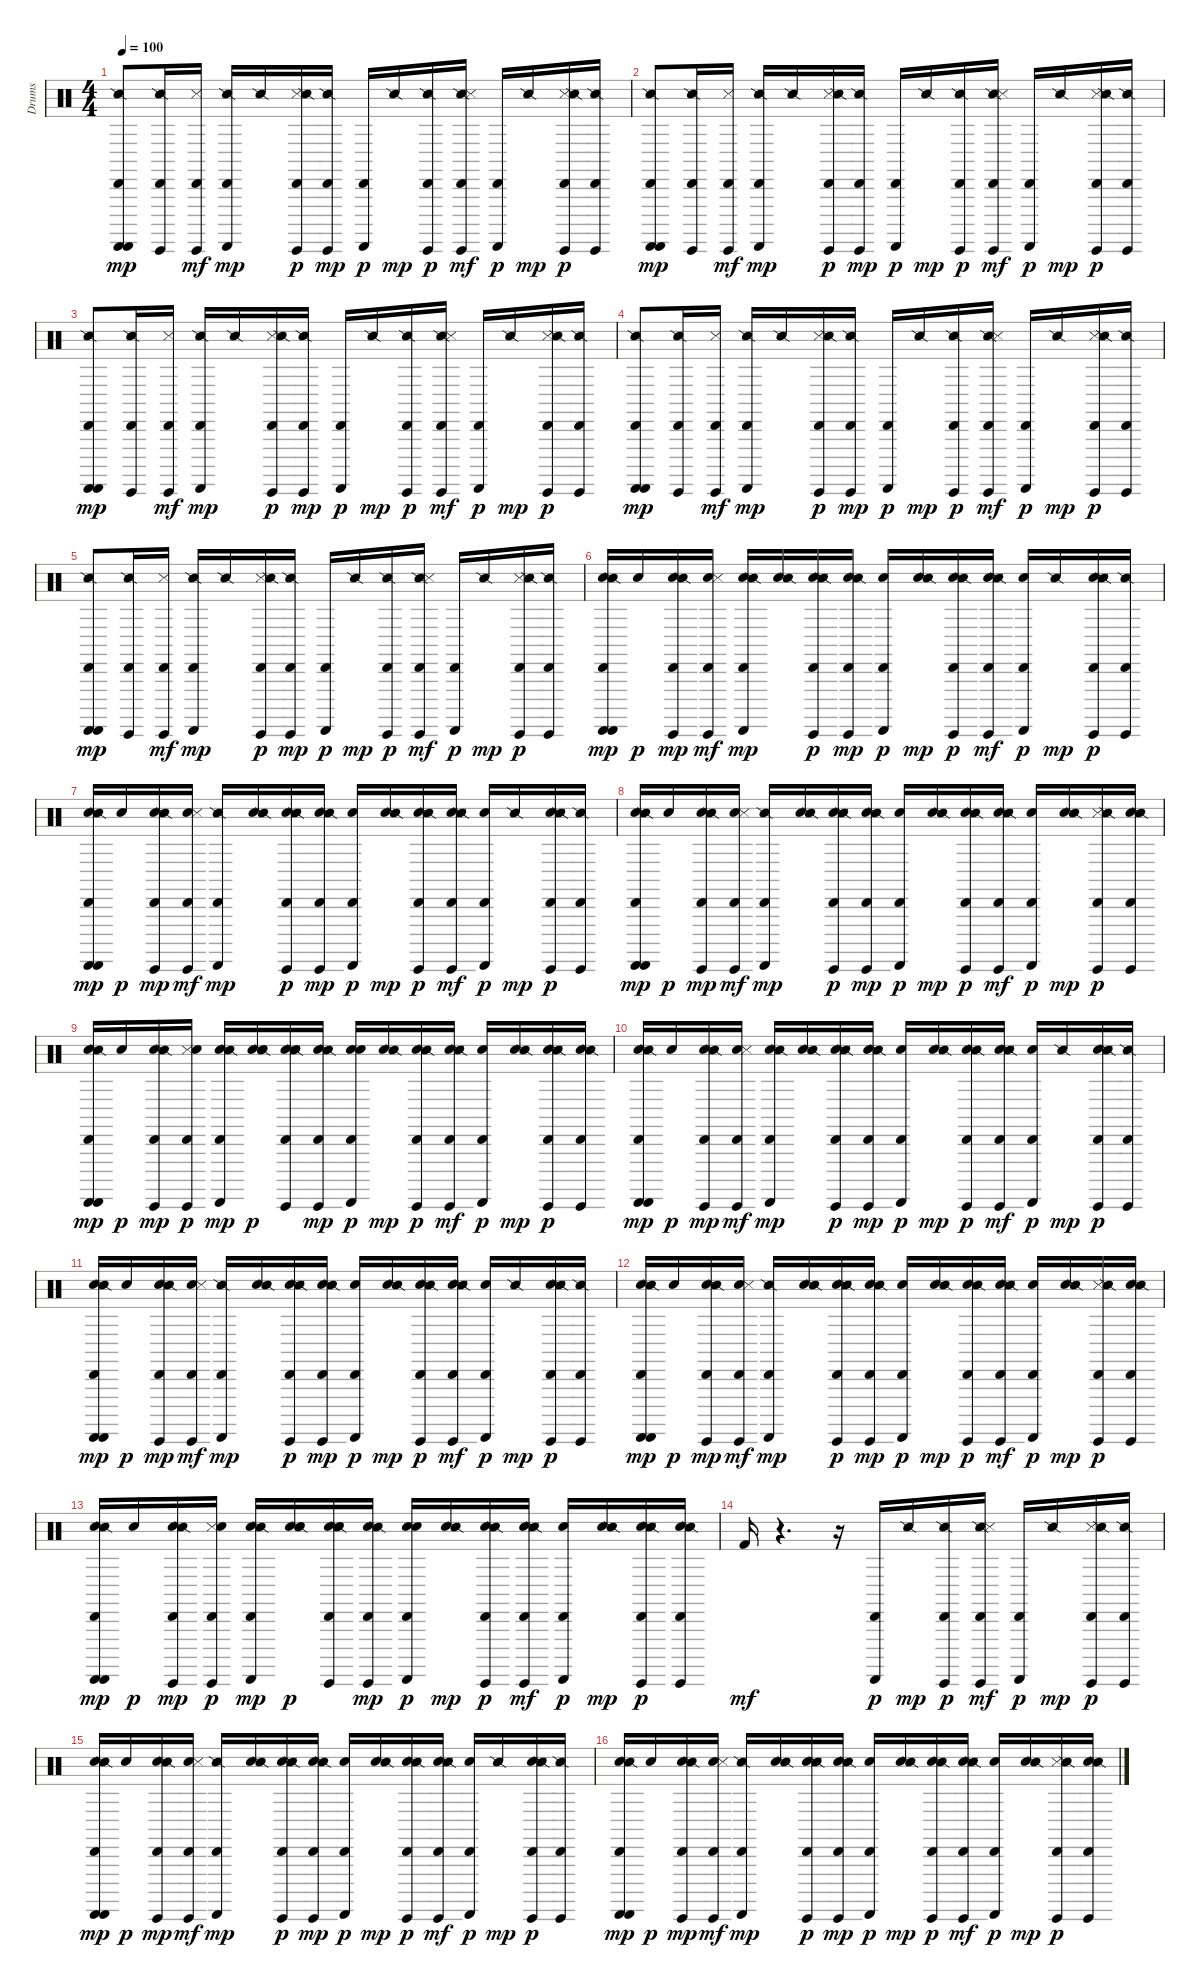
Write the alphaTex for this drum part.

\track ("Drums" "Drums") {instrument percussion}
\staff {score}
\articulation defaults
\ts (4 4)
\tempo 100
\clef neutral
\ks c
("Cabasa (hit)" "Guiro (scrap-return)" "Guiro (scrap-return)" "Snare (side stick) 2").8{dy mp} ("Cabasa (hit)" "Guiro (hit)" "Snare (side stick) 2").16 ("Guiro (hit)" "Cabasa (hit)" "Metronome (hit)").16{dy mf} ("Cabasa (hit)" "Guiro (scrap-return)" "Snare (side stick) 2").16{dy mp} "Snare (side stick) 2".16 ("Metronome (hit)" "Snare (side stick) 2" "Guiro (hit)" "Cabasa (hit)").16{dy p} ("Guiro (hit)" "Cabasa (hit)" "Snare (side stick) 2").16{dy mp} ("Cabasa (hit)" "Guiro (scrap-return)").16{dy p} "Snare (side stick) 2".16{dy mp} ("Snare (side stick) 2" "Guiro (hit)" "Cabasa (hit)").16{dy p} ("Guiro (hit)" "Snare (side stick) 2" "Cabasa (hit)" "Metronome (hit)").16{dy mf} ("Cabasa (hit)" "Guiro (scrap-return)").16{dy p} "Snare (side stick) 2".16{dy mp} ("Metronome (hit)" "Guiro (hit)" "Snare (side stick) 2" "Cabasa (hit)").16{dy p} ("Guiro (hit)" "Snare (side stick) 2" "Cabasa (hit)").16 |
("Cabasa (hit)" "Guiro (scrap-return)" "Guiro (scrap-return)" "Snare (side stick) 2").8{dy mp} ("Cabasa (hit)" "Guiro (hit)" "Snare (side stick) 2").16 ("Guiro (hit)" "Cabasa (hit)" "Metronome (hit)").16{dy mf} ("Cabasa (hit)" "Guiro (scrap-return)" "Snare (side stick) 2").16{dy mp} "Snare (side stick) 2".16 ("Metronome (hit)" "Snare (side stick) 2" "Guiro (hit)" "Cabasa (hit)").16{dy p} ("Guiro (hit)" "Cabasa (hit)" "Snare (side stick) 2").16{dy mp} ("Cabasa (hit)" "Guiro (scrap-return)").16{dy p} "Snare (side stick) 2".16{dy mp} ("Snare (side stick) 2" "Guiro (hit)" "Cabasa (hit)").16{dy p} ("Guiro (hit)" "Snare (side stick) 2" "Cabasa (hit)" "Metronome (hit)").16{dy mf} ("Cabasa (hit)" "Guiro (scrap-return)").16{dy p} "Snare (side stick) 2".16{dy mp} ("Metronome (hit)" "Guiro (hit)" "Snare (side stick) 2" "Cabasa (hit)").16{dy p} ("Guiro (hit)" "Snare (side stick) 2" "Cabasa (hit)").16 |
("Cabasa (hit)" "Guiro (scrap-return)" "Guiro (scrap-return)" "Snare (side stick) 2").8{dy mp} ("Cabasa (hit)" "Guiro (hit)" "Snare (side stick) 2").16 ("Guiro (hit)" "Cabasa (hit)" "Metronome (hit)").16{dy mf} ("Cabasa (hit)" "Guiro (scrap-return)" "Snare (side stick) 2").16{dy mp} "Snare (side stick) 2".16 ("Metronome (hit)" "Snare (side stick) 2" "Guiro (hit)" "Cabasa (hit)").16{dy p} ("Guiro (hit)" "Cabasa (hit)" "Snare (side stick) 2").16{dy mp} ("Cabasa (hit)" "Guiro (scrap-return)").16{dy p} "Snare (side stick) 2".16{dy mp} ("Snare (side stick) 2" "Guiro (hit)" "Cabasa (hit)").16{dy p} ("Guiro (hit)" "Snare (side stick) 2" "Cabasa (hit)" "Metronome (hit)").16{dy mf} ("Cabasa (hit)" "Guiro (scrap-return)").16{dy p} "Snare (side stick) 2".16{dy mp} ("Metronome (hit)" "Guiro (hit)" "Snare (side stick) 2" "Cabasa (hit)").16{dy p} ("Guiro (hit)" "Snare (side stick) 2" "Cabasa (hit)").16 |
("Cabasa (hit)" "Guiro (scrap-return)" "Guiro (scrap-return)" "Snare (side stick) 2").8{dy mp} ("Cabasa (hit)" "Guiro (hit)" "Snare (side stick) 2").16 ("Guiro (hit)" "Cabasa (hit)" "Metronome (hit)").16{dy mf} ("Cabasa (hit)" "Guiro (scrap-return)" "Snare (side stick) 2").16{dy mp} "Snare (side stick) 2".16 ("Metronome (hit)" "Snare (side stick) 2" "Guiro (hit)" "Cabasa (hit)").16{dy p} ("Guiro (hit)" "Cabasa (hit)" "Snare (side stick) 2").16{dy mp} ("Cabasa (hit)" "Guiro (scrap-return)").16{dy p} "Snare (side stick) 2".16{dy mp} ("Snare (side stick) 2" "Guiro (hit)" "Cabasa (hit)").16{dy p} ("Guiro (hit)" "Snare (side stick) 2" "Cabasa (hit)" "Metronome (hit)").16{dy mf} ("Cabasa (hit)" "Guiro (scrap-return)").16{dy p} "Snare (side stick) 2".16{dy mp} ("Metronome (hit)" "Guiro (hit)" "Snare (side stick) 2" "Cabasa (hit)").16{dy p} ("Guiro (hit)" "Snare (side stick) 2" "Cabasa (hit)").16 |
("Cabasa (hit)" "Guiro (scrap-return)" "Guiro (scrap-return)" "Snare (side stick) 2").8{dy mp} ("Cabasa (hit)" "Guiro (hit)" "Snare (side stick) 2").16 ("Guiro (hit)" "Cabasa (hit)" "Metronome (hit)").16{dy mf} ("Cabasa (hit)" "Guiro (scrap-return)" "Snare (side stick) 2").16{dy mp} "Snare (side stick) 2".16 ("Metronome (hit)" "Snare (side stick) 2" "Guiro (hit)" "Cabasa (hit)").16{dy p} ("Guiro (hit)" "Cabasa (hit)" "Snare (side stick) 2").16{dy mp} ("Cabasa (hit)" "Guiro (scrap-return)").16{dy p} "Snare (side stick) 2".16{dy mp} ("Snare (side stick) 2" "Guiro (hit)" "Cabasa (hit)").16{dy p} ("Guiro (hit)" "Snare (side stick) 2" "Cabasa (hit)" "Metronome (hit)").16{dy mf} ("Cabasa (hit)" "Guiro (scrap-return)").16{dy p} "Snare (side stick) 2".16{dy mp} ("Metronome (hit)" "Guiro (hit)" "Snare (side stick) 2" "Cabasa (hit)").16{dy p} ("Guiro (hit)" "Snare (side stick) 2" "Cabasa (hit)").16 |
("Electric Snare (hit)" "Cabasa (hit)" "Guiro (scrap-return)" "Guiro (scrap-return)" "Snare (side stick) 2").16{dy mp} "Electric Snare (hit)".16{dy p} ("Electric Snare (hit)" "Cabasa (hit)" "Guiro (hit)" "Snare (side stick) 2").16{dy mp} ("Electric Snare (hit)" "Guiro (hit)" "Cabasa (hit)" "Metronome (hit)").16{dy mf} ("Electric Snare (hit)" "Cabasa (hit)" "Guiro (scrap-return)" "Snare (side stick) 2").16{dy mp} ("Electric Snare (hit)" "Snare (side stick) 2").16 ("Electric Snare (hit)" "Metronome (hit)" "Snare (side stick) 2" "Guiro (hit)" "Cabasa (hit)").16{dy p} ("Electric Snare (hit)" "Guiro (hit)" "Cabasa (hit)" "Snare (side stick) 2").16{dy mp} ("Electric Snare (hit)" "Cabasa (hit)" "Guiro (scrap-return)").16{dy p} ("Electric Snare (hit)" "Snare (side stick) 2").16{dy mp} ("Electric Snare (hit)" "Snare (side stick) 2" "Guiro (hit)" "Cabasa (hit)").16{dy p} ("Electric Snare (hit)" "Guiro (hit)" "Snare (side stick) 2" "Cabasa (hit)" "Metronome (hit)").16{dy mf} ("Electric Snare (hit)" "Cabasa (hit)" "Guiro (scrap-return)").16{dy p} "Snare (side stick) 2".16{dy mp} ("Electric Snare (hit)" "Metronome (hit)" "Guiro (hit)" "Snare (side stick) 2" "Cabasa (hit)").16{dy p} ("Guiro (hit)" "Snare (side stick) 2" "Cabasa (hit)").16 |
("Electric Snare (hit)" "Cabasa (hit)" "Guiro (scrap-return)" "Guiro (scrap-return)" "Snare (side stick) 2").16{dy mp} "Electric Snare (hit)".16{dy p} ("Electric Snare (hit)" "Cabasa (hit)" "Guiro (hit)" "Snare (side stick) 2").16{dy mp} ("Electric Snare (hit)" "Guiro (hit)" "Cabasa (hit)" "Metronome (hit)").16{dy mf} ("Cabasa (hit)" "Guiro (scrap-return)" "Snare (side stick) 2").16{dy mp} ("Electric Snare (hit)" "Snare (side stick) 2").16 ("Electric Snare (hit)" "Metronome (hit)" "Snare (side stick) 2" "Guiro (hit)" "Cabasa (hit)").16{dy p} ("Electric Snare (hit)" "Guiro (hit)" "Cabasa (hit)" "Snare (side stick) 2").16{dy mp} ("Electric Snare (hit)" "Cabasa (hit)" "Guiro (scrap-return)").16{dy p} ("Electric Snare (hit)" "Snare (side stick) 2").16{dy mp} ("Electric Snare (hit)" "Snare (side stick) 2" "Guiro (hit)" "Cabasa (hit)").16{dy p} ("Electric Snare (hit)" "Guiro (hit)" "Snare (side stick) 2" "Cabasa (hit)" "Metronome (hit)").16{dy mf} ("Electric Snare (hit)" "Cabasa (hit)" "Guiro (scrap-return)").16{dy p} "Snare (side stick) 2".16{dy mp} ("Electric Snare (hit)" "Metronome (hit)" "Guiro (hit)" "Snare (side stick) 2" "Cabasa (hit)").16{dy p} ("Guiro (hit)" "Snare (side stick) 2" "Cabasa (hit)").16 |
("Electric Snare (hit)" "Cabasa (hit)" "Guiro (scrap-return)" "Guiro (scrap-return)" "Snare (side stick) 2").16{dy mp} "Electric Snare (hit)".16{dy p} ("Electric Snare (hit)" "Cabasa (hit)" "Guiro (hit)" "Snare (side stick) 2").16{dy mp} ("Electric Snare (hit)" "Guiro (hit)" "Cabasa (hit)" "Metronome (hit)").16{dy mf} ("Cabasa (hit)" "Guiro (scrap-return)" "Snare (side stick) 2").16{dy mp} ("Electric Snare (hit)" "Snare (side stick) 2").16 ("Electric Snare (hit)" "Metronome (hit)" "Snare (side stick) 2" "Guiro (hit)" "Cabasa (hit)").16{dy p} ("Electric Snare (hit)" "Guiro (hit)" "Cabasa (hit)" "Snare (side stick) 2").16{dy mp} ("Electric Snare (hit)" "Cabasa (hit)" "Guiro (scrap-return)").16{dy p} ("Electric Snare (hit)" "Snare (side stick) 2").16{dy mp} ("Electric Snare (hit)" "Snare (side stick) 2" "Guiro (hit)" "Cabasa (hit)").16{dy p} ("Electric Snare (hit)" "Guiro (hit)" "Snare (side stick) 2" "Cabasa (hit)" "Metronome (hit)").16{dy mf} ("Electric Snare (hit)" "Cabasa (hit)" "Guiro (scrap-return)").16{dy p} ("Electric Snare (hit)" "Snare (side stick) 2").16{dy mp} ("Metronome (hit)" "Guiro (hit)" "Snare (side stick) 2" "Cabasa (hit)").16{dy p} ("Electric Snare (hit)" "Guiro (hit)" "Snare (side stick) 2" "Cabasa (hit)").16 |
("Electric Snare (hit)" "Cabasa (hit)" "Guiro (scrap-return)" "Guiro (scrap-return)" "Snare (side stick) 2").16{dy mp} "Electric Snare (hit)".16{dy p} ("Electric Snare (hit)" "Cabasa (hit)" "Guiro (hit)" "Snare (side stick) 2").16{dy mp} ("Guiro (hit)" "Cabasa (hit)" "Metronome (hit)" "Electric Snare (hit)").16{dy p} ("Electric Snare (hit)" "Cabasa (hit)" "Guiro (scrap-return)" "Snare (side stick) 2").16{dy mp} ("Electric Snare (hit)" "Snare (side stick) 2" "Electric Snare (hit)").16{dy p} ("Electric Snare (hit)" "Electric Snare (hit)" "Metronome (hit)" "Snare (side stick) 2" "Guiro (hit)" "Cabasa (hit)").16 ("Electric Snare (hit)" "Guiro (hit)" "Cabasa (hit)" "Snare (side stick) 2").16{dy mp} ("Electric Snare (hit)" "Cabasa (hit)" "Guiro (scrap-return)" "Electric Snare (hit)").16{dy p} ("Electric Snare (hit)" "Snare (side stick) 2").16{dy mp} ("Electric Snare (hit)" "Snare (side stick) 2" "Guiro (hit)" "Cabasa (hit)").16{dy p} ("Electric Snare (hit)" "Guiro (hit)" "Snare (side stick) 2" "Cabasa (hit)" "Metronome (hit)").16{dy mf} ("Electric Snare (hit)" "Cabasa (hit)" "Guiro (scrap-return)").16{dy p} ("Electric Snare (hit)" "Snare (side stick) 2").16{dy mp} ("Electric Snare (hit)" "Metronome (hit)" "Guiro (hit)" "Snare (side stick) 2" "Cabasa (hit)").16{dy p} ("Electric Snare (hit)" "Guiro (hit)" "Snare (side stick) 2" "Cabasa (hit)").16 |
("Electric Snare (hit)" "Cabasa (hit)" "Guiro (scrap-return)" "Guiro (scrap-return)" "Snare (side stick) 2").16{dy mp} "Electric Snare (hit)".16{dy p} ("Electric Snare (hit)" "Cabasa (hit)" "Guiro (hit)" "Snare (side stick) 2").16{dy mp} ("Electric Snare (hit)" "Guiro (hit)" "Cabasa (hit)" "Metronome (hit)").16{dy mf} ("Electric Snare (hit)" "Cabasa (hit)" "Guiro (scrap-return)" "Snare (side stick) 2").16{dy mp} ("Electric Snare (hit)" "Snare (side stick) 2").16 ("Electric Snare (hit)" "Metronome (hit)" "Snare (side stick) 2" "Guiro (hit)" "Cabasa (hit)").16{dy p} ("Electric Snare (hit)" "Guiro (hit)" "Cabasa (hit)" "Snare (side stick) 2").16{dy mp} ("Electric Snare (hit)" "Cabasa (hit)" "Guiro (scrap-return)").16{dy p} ("Electric Snare (hit)" "Snare (side stick) 2").16{dy mp} ("Electric Snare (hit)" "Snare (side stick) 2" "Guiro (hit)" "Cabasa (hit)").16{dy p} ("Electric Snare (hit)" "Guiro (hit)" "Snare (side stick) 2" "Cabasa (hit)" "Metronome (hit)").16{dy mf} ("Electric Snare (hit)" "Cabasa (hit)" "Guiro (scrap-return)").16{dy p} "Snare (side stick) 2".16{dy mp} ("Electric Snare (hit)" "Metronome (hit)" "Guiro (hit)" "Snare (side stick) 2" "Cabasa (hit)").16{dy p} ("Guiro (hit)" "Snare (side stick) 2" "Cabasa (hit)").16 |
("Electric Snare (hit)" "Cabasa (hit)" "Guiro (scrap-return)" "Guiro (scrap-return)" "Snare (side stick) 2").16{dy mp} "Electric Snare (hit)".16{dy p} ("Electric Snare (hit)" "Cabasa (hit)" "Guiro (hit)" "Snare (side stick) 2").16{dy mp} ("Electric Snare (hit)" "Guiro (hit)" "Cabasa (hit)" "Metronome (hit)").16{dy mf} ("Cabasa (hit)" "Guiro (scrap-return)" "Snare (side stick) 2").16{dy mp} ("Electric Snare (hit)" "Snare (side stick) 2").16 ("Electric Snare (hit)" "Metronome (hit)" "Snare (side stick) 2" "Guiro (hit)" "Cabasa (hit)").16{dy p} ("Electric Snare (hit)" "Guiro (hit)" "Cabasa (hit)" "Snare (side stick) 2").16{dy mp} ("Electric Snare (hit)" "Cabasa (hit)" "Guiro (scrap-return)").16{dy p} ("Electric Snare (hit)" "Snare (side stick) 2").16{dy mp} ("Electric Snare (hit)" "Snare (side stick) 2" "Guiro (hit)" "Cabasa (hit)").16{dy p} ("Electric Snare (hit)" "Guiro (hit)" "Snare (side stick) 2" "Cabasa (hit)" "Metronome (hit)").16{dy mf} ("Electric Snare (hit)" "Cabasa (hit)" "Guiro (scrap-return)").16{dy p} "Snare (side stick) 2".16{dy mp} ("Electric Snare (hit)" "Metronome (hit)" "Guiro (hit)" "Snare (side stick) 2" "Cabasa (hit)").16{dy p} ("Guiro (hit)" "Snare (side stick) 2" "Cabasa (hit)").16 |
("Electric Snare (hit)" "Cabasa (hit)" "Guiro (scrap-return)" "Guiro (scrap-return)" "Snare (side stick) 2").16{dy mp} "Electric Snare (hit)".16{dy p} ("Electric Snare (hit)" "Cabasa (hit)" "Guiro (hit)" "Snare (side stick) 2").16{dy mp} ("Electric Snare (hit)" "Guiro (hit)" "Cabasa (hit)" "Metronome (hit)").16{dy mf} ("Cabasa (hit)" "Guiro (scrap-return)" "Snare (side stick) 2").16{dy mp} ("Electric Snare (hit)" "Snare (side stick) 2").16 ("Electric Snare (hit)" "Metronome (hit)" "Snare (side stick) 2" "Guiro (hit)" "Cabasa (hit)").16{dy p} ("Electric Snare (hit)" "Guiro (hit)" "Cabasa (hit)" "Snare (side stick) 2").16{dy mp} ("Electric Snare (hit)" "Cabasa (hit)" "Guiro (scrap-return)").16{dy p} ("Electric Snare (hit)" "Snare (side stick) 2").16{dy mp} ("Electric Snare (hit)" "Snare (side stick) 2" "Guiro (hit)" "Cabasa (hit)").16{dy p} ("Electric Snare (hit)" "Guiro (hit)" "Snare (side stick) 2" "Cabasa (hit)" "Metronome (hit)").16{dy mf} ("Electric Snare (hit)" "Cabasa (hit)" "Guiro (scrap-return)").16{dy p} ("Electric Snare (hit)" "Snare (side stick) 2").16{dy mp} ("Metronome (hit)" "Guiro (hit)" "Snare (side stick) 2" "Cabasa (hit)").16{dy p} ("Electric Snare (hit)" "Guiro (hit)" "Snare (side stick) 2" "Cabasa (hit)").16 |
("Electric Snare (hit)" "Cabasa (hit)" "Guiro (scrap-return)" "Guiro (scrap-return)" "Snare (side stick) 2").16{dy mp} "Electric Snare (hit)".16{dy p} ("Electric Snare (hit)" "Cabasa (hit)" "Guiro (hit)" "Snare (side stick) 2").16{dy mp} ("Guiro (hit)" "Cabasa (hit)" "Metronome (hit)" "Electric Snare (hit)").16{dy p} ("Electric Snare (hit)" "Cabasa (hit)" "Guiro (scrap-return)" "Snare (side stick) 2").16{dy mp} ("Electric Snare (hit)" "Snare (side stick) 2" "Electric Snare (hit)").16{dy p} ("Electric Snare (hit)" "Electric Snare (hit)" "Metronome (hit)" "Snare (side stick) 2" "Guiro (hit)" "Cabasa (hit)").16 ("Electric Snare (hit)" "Guiro (hit)" "Cabasa (hit)" "Snare (side stick) 2").16{dy mp} ("Electric Snare (hit)" "Cabasa (hit)" "Guiro (scrap-return)" "Electric Snare (hit)").16{dy p} ("Electric Snare (hit)" "Snare (side stick) 2").16{dy mp} ("Electric Snare (hit)" "Snare (side stick) 2" "Guiro (hit)" "Cabasa (hit)").16{dy p} ("Electric Snare (hit)" "Guiro (hit)" "Snare (side stick) 2" "Cabasa (hit)" "Metronome (hit)").16{dy mf} ("Electric Snare (hit)" "Cabasa (hit)" "Guiro (scrap-return)").16{dy p} ("Electric Snare (hit)" "Snare (side stick) 2").16{dy mp} ("Electric Snare (hit)" "Metronome (hit)" "Guiro (hit)" "Snare (side stick) 2" "Cabasa (hit)").16{dy p} ("Electric Snare (hit)" "Guiro (hit)" "Snare (side stick) 2" "Cabasa (hit)").16 |
"Kick (hit) 2".16{dy mf} r.4{d} r.16 ("Cabasa (hit)" "Guiro (scrap-return)").16{dy p} "Snare (side stick) 2".16{dy mp} ("Snare (side stick) 2" "Guiro (hit)" "Cabasa (hit)").16{dy p} ("Guiro (hit)" "Snare (side stick) 2" "Cabasa (hit)" "Metronome (hit)").16{dy mf} ("Cabasa (hit)" "Guiro (scrap-return)").16{dy p} "Snare (side stick) 2".16{dy mp} ("Metronome (hit)" "Guiro (hit)" "Snare (side stick) 2" "Cabasa (hit)").16{dy p} ("Guiro (hit)" "Snare (side stick) 2" "Cabasa (hit)").16 |
("Electric Snare (hit)" "Cabasa (hit)" "Guiro (scrap-return)" "Guiro (scrap-return)" "Snare (side stick) 2").16{dy mp} "Electric Snare (hit)".16{dy p} ("Electric Snare (hit)" "Cabasa (hit)" "Guiro (hit)" "Snare (side stick) 2").16{dy mp} ("Electric Snare (hit)" "Guiro (hit)" "Cabasa (hit)" "Metronome (hit)").16{dy mf} ("Cabasa (hit)" "Guiro (scrap-return)" "Snare (side stick) 2").16{dy mp} ("Electric Snare (hit)" "Snare (side stick) 2").16 ("Electric Snare (hit)" "Metronome (hit)" "Snare (side stick) 2" "Guiro (hit)" "Cabasa (hit)").16{dy p} ("Electric Snare (hit)" "Guiro (hit)" "Cabasa (hit)" "Snare (side stick) 2").16{dy mp} ("Electric Snare (hit)" "Cabasa (hit)" "Guiro (scrap-return)").16{dy p} ("Electric Snare (hit)" "Snare (side stick) 2").16{dy mp} ("Electric Snare (hit)" "Snare (side stick) 2" "Guiro (hit)" "Cabasa (hit)").16{dy p} ("Electric Snare (hit)" "Guiro (hit)" "Snare (side stick) 2" "Cabasa (hit)" "Metronome (hit)").16{dy mf} ("Electric Snare (hit)" "Cabasa (hit)" "Guiro (scrap-return)").16{dy p} "Snare (side stick) 2".16{dy mp} ("Electric Snare (hit)" "Metronome (hit)" "Guiro (hit)" "Snare (side stick) 2" "Cabasa (hit)").16{dy p} ("Guiro (hit)" "Snare (side stick) 2" "Cabasa (hit)").16 |
("Electric Snare (hit)" "Cabasa (hit)" "Guiro (scrap-return)" "Guiro (scrap-return)" "Snare (side stick) 2").16{dy mp} "Electric Snare (hit)".16{dy p} ("Electric Snare (hit)" "Cabasa (hit)" "Guiro (hit)" "Snare (side stick) 2").16{dy mp} ("Electric Snare (hit)" "Guiro (hit)" "Cabasa (hit)" "Metronome (hit)").16{dy mf} ("Cabasa (hit)" "Guiro (scrap-return)" "Snare (side stick) 2").16{dy mp} ("Electric Snare (hit)" "Snare (side stick) 2").16 ("Electric Snare (hit)" "Metronome (hit)" "Snare (side stick) 2" "Guiro (hit)" "Cabasa (hit)").16{dy p} ("Electric Snare (hit)" "Guiro (hit)" "Cabasa (hit)" "Snare (side stick) 2").16{dy mp} ("Electric Snare (hit)" "Cabasa (hit)" "Guiro (scrap-return)").16{dy p} ("Electric Snare (hit)" "Snare (side stick) 2").16{dy mp} ("Electric Snare (hit)" "Snare (side stick) 2" "Guiro (hit)" "Cabasa (hit)").16{dy p} ("Electric Snare (hit)" "Guiro (hit)" "Snare (side stick) 2" "Cabasa (hit)" "Metronome (hit)").16{dy mf} ("Electric Snare (hit)" "Cabasa (hit)" "Guiro (scrap-return)").16{dy p} ("Electric Snare (hit)" "Snare (side stick) 2").16{dy mp} ("Metronome (hit)" "Guiro (hit)" "Snare (side stick) 2" "Cabasa (hit)").16{dy p} ("Electric Snare (hit)" "Guiro (hit)" "Snare (side stick) 2" "Cabasa (hit)").16
